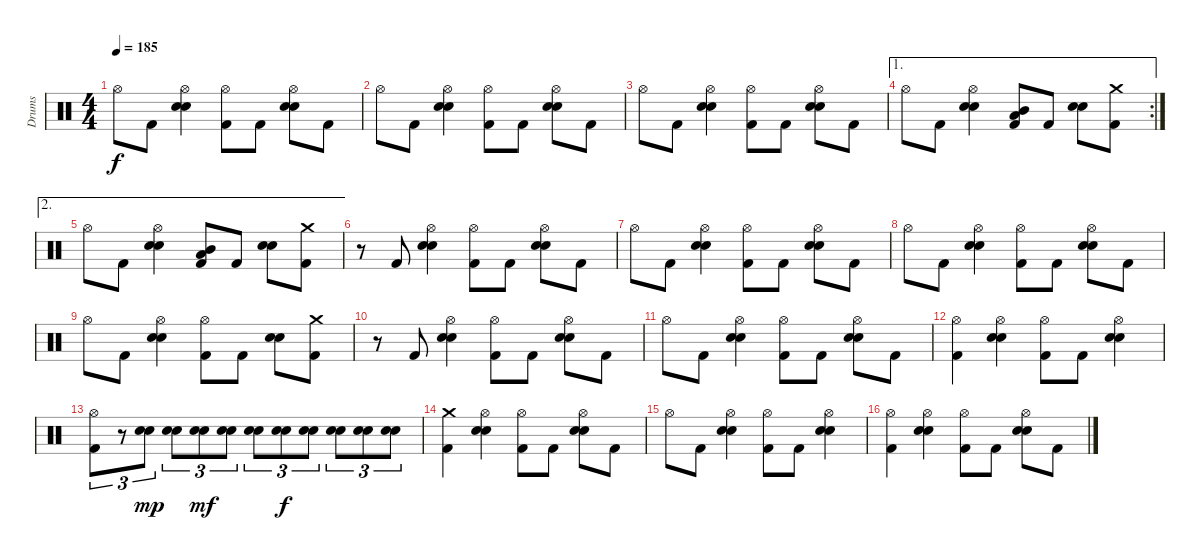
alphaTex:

\track ("Drums" "Drums") {instrument percussion}
\staff {score}
\articulation defaults
\ts (4 4)
\tempo 185
\clef neutral
\ks c "Hi-Hat (open)".8{dy f} "Kick (hit) 2".8
("Hi-Hat (open)" "Electric Snare (hit)" "Snare (hit) 2").4 ("Hi-Hat (open)" "Kick (hit) 2").8 "Kick (hit) 2".8 ("Hi-Hat (open)" "Electric Snare (hit)" "Snare (hit) 2").8 "Kick (hit) 2".8 |
"Hi-Hat (open)".8 "Kick (hit) 2".8 ("Hi-Hat (open)" "Electric Snare (hit)" "Snare (hit) 2").4 ("Hi-Hat (open)" "Kick (hit) 2").8 "Kick (hit) 2".8 ("Hi-Hat (open)" "Electric Snare (hit)" "Snare (hit) 2").8 "Kick (hit) 2".8 |
"Hi-Hat (open)".8 "Kick (hit) 2".8 ("Hi-Hat (open)" "Electric Snare (hit)" "Snare (hit) 2").4 ("Hi-Hat (open)" "Kick (hit) 2").8 "Kick (hit) 2".8 ("Hi-Hat (open)" "Electric Snare (hit)" "Snare (hit) 2").8 "Kick (hit) 2".8 |
\ae 1
\rc 2 "Hi-Hat (open)".8 "Kick (hit) 2".8
("Hi-Hat (open)" "Electric Snare (hit)" "Snare (hit) 2").4 ("Low Tom (hit)" "Mid Tom (hit)" "Kick (hit) 2").8 "Kick (hit) 2".8 ("Electric Snare (hit)" "Snare (hit) 2").8 ("Crash medium (hit)" "Kick (hit) 2").8 |
\ae 2 "Hi-Hat (open)".8 "Kick (hit) 2".8
("Hi-Hat (open)" "Electric Snare (hit)" "Snare (hit) 2").4 ("Low Tom (hit)" "Mid Tom (hit)" "Kick (hit) 2").8 "Kick (hit) 2".8 ("Electric Snare (hit)" "Snare (hit) 2").8 ("Crash medium (hit)" "Kick (hit) 2").8 |
r.8 "Kick (hit) 2".8 ("Hi-Hat (open)" "Electric Snare (hit)" "Snare (hit) 2").4 ("Hi-Hat (open)" "Kick (hit) 2").8 "Kick (hit) 2".8 ("Hi-Hat (open)" "Electric Snare (hit)" "Snare (hit) 2").8 "Kick (hit) 2".8 |
"Hi-Hat (open)".8 "Kick (hit) 2".8 ("Hi-Hat (open)" "Electric Snare (hit)" "Snare (hit) 2").4 ("Hi-Hat (open)" "Kick (hit) 2").8 "Kick (hit) 2".8 ("Hi-Hat (open)" "Electric Snare (hit)" "Snare (hit) 2").8 "Kick (hit) 2".8 |
"Hi-Hat (open)".8 "Kick (hit) 2".8 ("Hi-Hat (open)" "Electric Snare (hit)" "Snare (hit) 2").4 ("Hi-Hat (open)" "Kick (hit) 2").8 "Kick (hit) 2".8 ("Hi-Hat (open)" "Electric Snare (hit)" "Snare (hit) 2").8 "Kick (hit) 2".8 |
"Hi-Hat (open)".8 "Kick (hit) 2".8 ("Hi-Hat (open)" "Electric Snare (hit)" "Snare (hit) 2").4 ("Hi-Hat (open)" "Kick (hit) 2").8 "Kick (hit) 2".8 ("Electric Snare (hit)" "Snare (hit) 2").8 ("Crash medium (hit)" "Kick (hit) 2").8 |
r.8 "Kick (hit) 2".8 ("Hi-Hat (open)" "Electric Snare (hit)" "Snare (hit) 2").4 ("Hi-Hat (open)" "Kick (hit) 2").8 "Kick (hit) 2".8 ("Hi-Hat (open)" "Electric Snare (hit)" "Snare (hit) 2").8 "Kick (hit) 2".8 |
"Hi-Hat (open)".8 "Kick (hit) 2".8 ("Hi-Hat (open)" "Electric Snare (hit)" "Snare (hit) 2").4 ("Hi-Hat (open)" "Kick (hit) 2").8 "Kick (hit) 2".8 ("Hi-Hat (open)" "Electric Snare (hit)" "Snare (hit) 2").8 "Kick (hit) 2".8 |
("Hi-Hat (open)" "Kick (hit) 2").4 ("Hi-Hat (open)" "Electric Snare (hit)" "Snare (hit) 2").4 ("Hi-Hat (open)" "Kick (hit) 2").8 "Kick (hit) 2".8 ("Hi-Hat (open)" "Electric Snare (hit)" "Snare (hit) 2").4 |
("Hi-Hat (open)" "Kick (hit) 2").8{tu (3 2)} r.8{tu (3 2)} ("Snare (hit) 2" "Electric Snare (hit)").8{tu (3 2) dy mp} ("Snare (hit) 2" "Electric Snare (hit)").8{tu (3 2)} ("Snare (hit) 2" "Electric Snare (hit)").8{tu (3 2) dy mf} ("Snare (hit) 2" "Electric Snare (hit)").8{tu (3 2)} ("Snare (hit) 2" "Electric Snare (hit)").8{tu (3 2)} ("Snare (hit) 2" "Electric Snare (hit)").8{tu (3 2) dy f} ("Snare (hit) 2" "Electric Snare (hit)").8{tu (3 2)} ("Snare (hit) 2" "Electric Snare (hit)").8{tu (3 2)} ("Snare (hit) 2" "Electric Snare (hit)").8{tu (3 2)} ("Snare (hit) 2" "Electric Snare (hit)").8{tu (3 2)} |
("Crash medium (hit)" "Kick (hit) 2").4 ("Hi-Hat (open)" "Snare (hit) 2" "Electric Snare (hit)").4 ("Hi-Hat (open)" "Kick (hit) 2").8 "Kick (hit) 2".8 ("Hi-Hat (open)" "Snare (hit) 2" "Electric Snare (hit)").8 "Kick (hit) 2".8 |
"Hi-Hat (open)".8 "Kick (hit) 2".8 ("Hi-Hat (open)" "Electric Snare (hit)" "Snare (hit) 2").4 ("Hi-Hat (open)" "Kick (hit) 2").8 "Kick (hit) 2".8 ("Hi-Hat (open)" "Electric Snare (hit)" "Snare (hit) 2").4 |
("Hi-Hat (open)" "Kick (hit) 2").4 ("Hi-Hat (open)" "Electric Snare (hit)" "Snare (hit) 2").4 ("Hi-Hat (open)" "Kick (hit) 2").8 "Kick (hit) 2".8 ("Hi-Hat (open)" "Electric Snare (hit)" "Snare (hit) 2").8 "Kick (hit) 2".8
